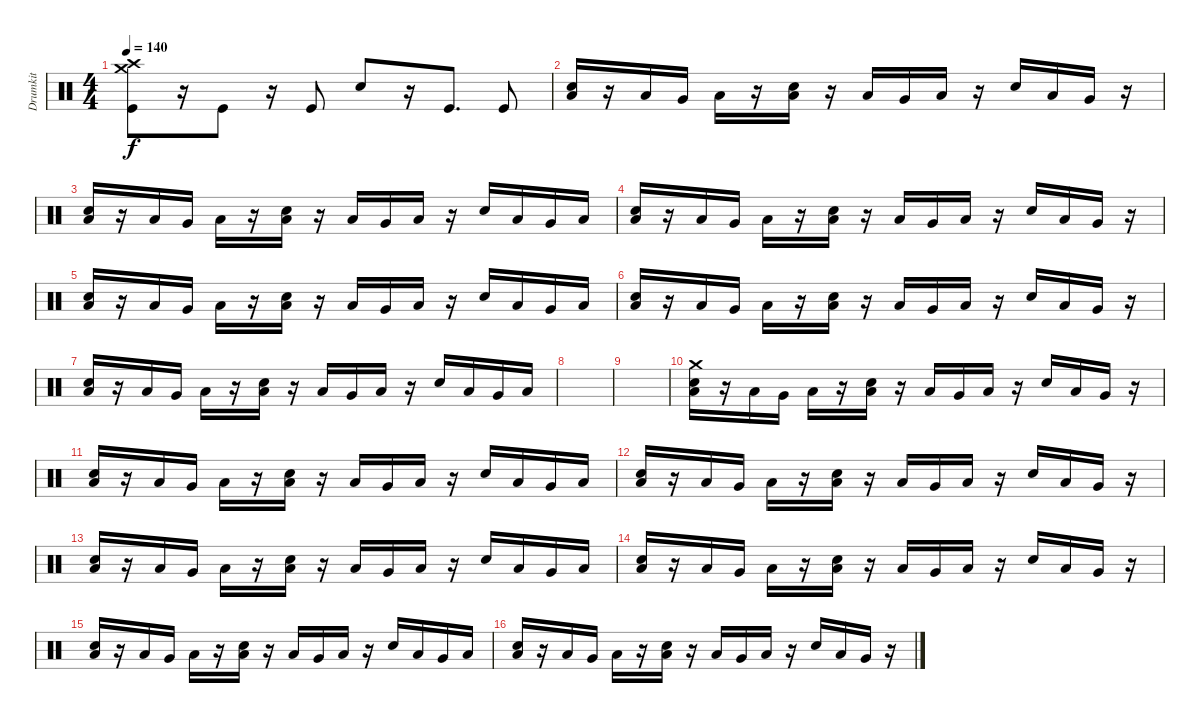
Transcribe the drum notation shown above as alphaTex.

\track ("Drumkit" "Drumkit") {instrument percussion}
\staff {score}
\articulation defaults
\ts (4 4)
\tempo 140
\clef neutral
\ks c
("Crash high (hit)" "Crash medium (hit)" "Kick (hit)").8{dy f} r.16 "Kick (hit)".8 r.16 "Kick (hit)".8 "Snare (hit) 2".8 r.16 "Kick (hit)".8{d} "Kick (hit)".8 |
("Snare (hit) 2" "Low Tom (hit)").16 r.16 "Low Tom (hit)".16 "Very Low Tom (hit)".16 "Low Floor Tom (hit)".16 r.16 ("Snare (hit) 2" "Low Tom (hit)").16 r.16 "Low Tom (hit)".16 "Very Low Tom (hit)".16 "Low Floor Tom (hit)".16 r.16 "Snare (hit) 2".16 "Low Tom (hit)".16 "Very Low Tom (hit)".16 r.16 |
("Snare (hit) 2" "Low Tom (hit)").16 r.16 "Low Tom (hit)".16 "Very Low Tom (hit)".16 "Low Floor Tom (hit)".16 r.16 ("Snare (hit) 2" "Low Tom (hit)").16 r.16 "Low Tom (hit)".16 "Very Low Tom (hit)".16 "Low Floor Tom (hit)".16 r.16 "Snare (hit) 2".16 "Low Tom (hit)".16 "Very Low Tom (hit)".16 "Low Tom (hit)".16 |
("Snare (hit) 2" "Low Tom (hit)").16 r.16 "Low Tom (hit)".16 "Very Low Tom (hit)".16 "Low Floor Tom (hit)".16 r.16 ("Snare (hit) 2" "Low Tom (hit)").16 r.16 "Low Tom (hit)".16 "Very Low Tom (hit)".16 "Low Floor Tom (hit)".16 r.16 "Snare (hit) 2".16 "Low Tom (hit)".16 "Very Low Tom (hit)".16 r.16 |
("Snare (hit) 2" "Low Tom (hit)").16 r.16 "Low Tom (hit)".16 "Very Low Tom (hit)".16 "Low Floor Tom (hit)".16 r.16 ("Snare (hit) 2" "Low Tom (hit)").16 r.16 "Low Tom (hit)".16 "Very Low Tom (hit)".16 "Low Floor Tom (hit)".16 r.16 "Snare (hit) 2".16 "Low Tom (hit)".16 "Very Low Tom (hit)".16 "Low Tom (hit)".16 |
("Snare (hit) 2" "Low Tom (hit)").16 r.16 "Low Tom (hit)".16 "Very Low Tom (hit)".16 "Low Floor Tom (hit)".16 r.16 ("Snare (hit) 2" "Low Tom (hit)").16 r.16 "Low Tom (hit)".16 "Very Low Tom (hit)".16 "Low Floor Tom (hit)".16 r.16 "Snare (hit) 2".16 "Low Tom (hit)".16 "Very Low Tom (hit)".16 r.16 |
("Snare (hit) 2" "Low Tom (hit)").16 r.16 "Low Tom (hit)".16 "Very Low Tom (hit)".16 "Low Floor Tom (hit)".16 r.16 ("Snare (hit) 2" "Low Tom (hit)").16 r.16 "Low Tom (hit)".16 "Very Low Tom (hit)".16 "Low Floor Tom (hit)".16 r.16 "Snare (hit) 2".16 "Low Tom (hit)".16 "Very Low Tom (hit)".16 "Low Tom (hit)".16 |
|
|
("Snare (hit) 2" "Low Tom (hit)" "Crash medium (hit)").16 r.16 "Low Tom (hit)".16 "Very Low Tom (hit)".16 "Low Floor Tom (hit)".16 r.16 ("Snare (hit) 2" "Low Tom (hit)").16 r.16 "Low Tom (hit)".16 "Very Low Tom (hit)".16 "Low Floor Tom (hit)".16 r.16 "Snare (hit) 2".16 "Low Tom (hit)".16 "Very Low Tom (hit)".16 r.16 |
("Snare (hit) 2" "Low Tom (hit)").16 r.16 "Low Tom (hit)".16 "Very Low Tom (hit)".16 "Low Floor Tom (hit)".16 r.16 ("Snare (hit) 2" "Low Tom (hit)").16 r.16 "Low Tom (hit)".16 "Very Low Tom (hit)".16 "Low Floor Tom (hit)".16 r.16 "Snare (hit) 2".16 "Low Tom (hit)".16 "Very Low Tom (hit)".16 "Low Tom (hit)".16 |
("Snare (hit) 2" "Low Tom (hit)").16 r.16 "Low Tom (hit)".16 "Very Low Tom (hit)".16 "Low Floor Tom (hit)".16 r.16 ("Snare (hit) 2" "Low Tom (hit)").16 r.16 "Low Tom (hit)".16 "Very Low Tom (hit)".16 "Low Floor Tom (hit)".16 r.16 "Snare (hit) 2".16 "Low Tom (hit)".16 "Very Low Tom (hit)".16 r.16 |
("Snare (hit) 2" "Low Tom (hit)").16 r.16 "Low Tom (hit)".16 "Very Low Tom (hit)".16 "Low Floor Tom (hit)".16 r.16 ("Snare (hit) 2" "Low Tom (hit)").16 r.16 "Low Tom (hit)".16 "Very Low Tom (hit)".16 "Low Floor Tom (hit)".16 r.16 "Snare (hit) 2".16 "Low Tom (hit)".16 "Very Low Tom (hit)".16 "Low Tom (hit)".16 |
("Snare (hit) 2" "Low Tom (hit)").16 r.16 "Low Tom (hit)".16 "Very Low Tom (hit)".16 "Low Floor Tom (hit)".16 r.16 ("Snare (hit) 2" "Low Tom (hit)").16 r.16 "Low Tom (hit)".16 "Very Low Tom (hit)".16 "Low Floor Tom (hit)".16 r.16 "Snare (hit) 2".16 "Low Tom (hit)".16 "Very Low Tom (hit)".16 r.16 |
("Snare (hit) 2" "Low Tom (hit)").16 r.16 "Low Tom (hit)".16 "Very Low Tom (hit)".16 "Low Floor Tom (hit)".16 r.16 ("Snare (hit) 2" "Low Tom (hit)").16 r.16 "Low Tom (hit)".16 "Very Low Tom (hit)".16 "Low Floor Tom (hit)".16 r.16 "Snare (hit) 2".16 "Low Tom (hit)".16 "Very Low Tom (hit)".16 "Low Tom (hit)".16 |
("Snare (hit) 2" "Low Tom (hit)").16 r.16 "Low Tom (hit)".16 "Very Low Tom (hit)".16 "Low Floor Tom (hit)".16 r.16 ("Snare (hit) 2" "Low Tom (hit)").16 r.16 "Low Tom (hit)".16 "Very Low Tom (hit)".16 "Low Floor Tom (hit)".16 r.16 "Snare (hit) 2".16 "Low Tom (hit)".16 "Very Low Tom (hit)".16 r.16
